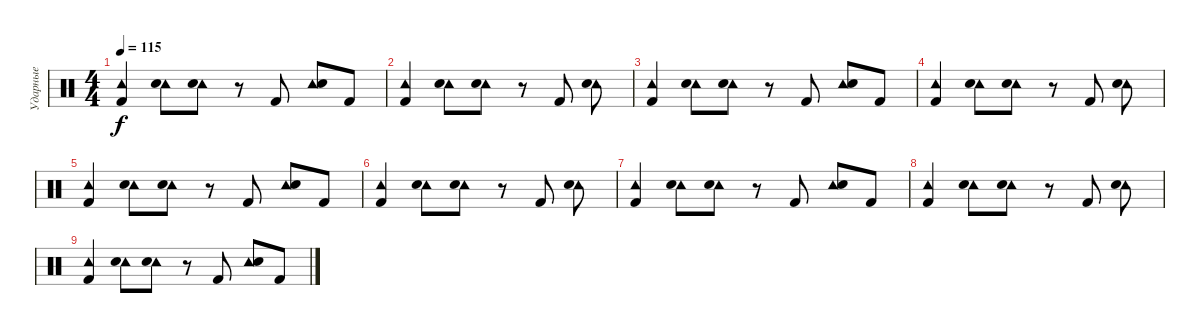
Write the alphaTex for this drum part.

\track ("Ударные" "Ударные") {instrument percussion}
\staff
\articulation defaults
\ts (4 4)
\tempo 115
\clef neutral
\ks c
("Tambourine (hit)" "Kick (hit) 2").4{dy f} ("Tambourine (hit)" "Electric Snare (hit)").8 ("Tambourine (hit)" "Electric Snare (hit)").8 r.8 "Kick (hit) 2".8 ("Tambourine (hit)" "Electric Snare (hit)").8 "Kick (hit) 2".8 |
("Tambourine (hit)" "Kick (hit) 2").4 ("Tambourine (hit)" "Electric Snare (hit)").8 ("Tambourine (hit)" "Electric Snare (hit)").8 r.8 "Kick (hit) 2".8 ("Tambourine (hit)" "Electric Snare (hit)").8 |
("Tambourine (hit)" "Kick (hit) 2").4 ("Tambourine (hit)" "Electric Snare (hit)").8 ("Tambourine (hit)" "Electric Snare (hit)").8 r.8 "Kick (hit) 2".8 ("Tambourine (hit)" "Electric Snare (hit)").8 "Kick (hit) 2".8 |
("Tambourine (hit)" "Kick (hit) 2").4 ("Tambourine (hit)" "Electric Snare (hit)").8 ("Tambourine (hit)" "Electric Snare (hit)").8 r.8 "Kick (hit) 2".8 ("Tambourine (hit)" "Electric Snare (hit)").8 |
("Tambourine (hit)" "Kick (hit) 2").4 ("Tambourine (hit)" "Electric Snare (hit)").8 ("Tambourine (hit)" "Electric Snare (hit)").8 r.8 "Kick (hit) 2".8 ("Tambourine (hit)" "Electric Snare (hit)").8 "Kick (hit) 2".8 |
("Tambourine (hit)" "Kick (hit) 2").4 ("Tambourine (hit)" "Electric Snare (hit)").8 ("Tambourine (hit)" "Electric Snare (hit)").8 r.8 "Kick (hit) 2".8 ("Tambourine (hit)" "Electric Snare (hit)").8 |
("Tambourine (hit)" "Kick (hit) 2").4 ("Tambourine (hit)" "Electric Snare (hit)").8 ("Tambourine (hit)" "Electric Snare (hit)").8 r.8 "Kick (hit) 2".8 ("Tambourine (hit)" "Electric Snare (hit)").8 "Kick (hit) 2".8 |
("Tambourine (hit)" "Kick (hit) 2").4 ("Tambourine (hit)" "Electric Snare (hit)").8 ("Tambourine (hit)" "Electric Snare (hit)").8 r.8 "Kick (hit) 2".8 ("Tambourine (hit)" "Electric Snare (hit)").8 |
("Tambourine (hit)" "Kick (hit) 2").4 ("Tambourine (hit)" "Electric Snare (hit)").8 ("Tambourine (hit)" "Electric Snare (hit)").8 r.8 "Kick (hit) 2".8 ("Tambourine (hit)" "Electric Snare (hit)").8 "Kick (hit) 2".8
